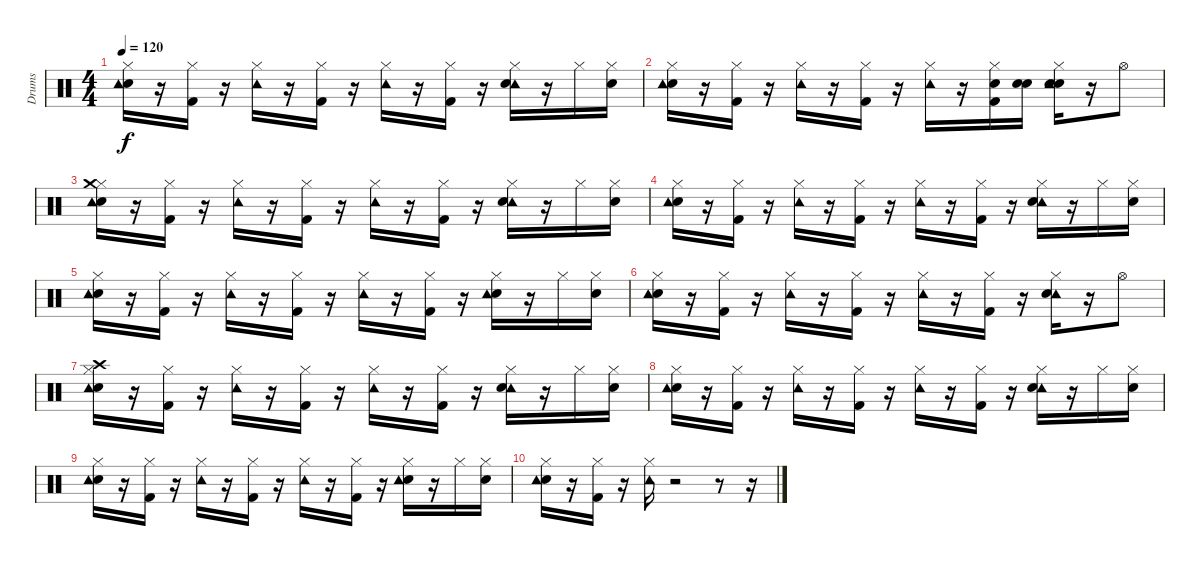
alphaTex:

\track ("Drums" "Drums") {instrument percussion}
\staff {score}
\articulation defaults
\ts (4 4)
\tempo 120
\clef neutral
\ks c
("Snare (hit)" "Hi-Hat (closed)" "Tambourine (hit)").16{dy f} r.16 ("Hi-Hat (closed)" "Kick (hit) 2").16 r.16 ("Hi-Hat (closed)" "Tambourine (hit)").16 r.16 ("Hi-Hat (closed)" "Kick (hit) 2").16 r.16 ("Tambourine (hit)" "Hi-Hat (closed)").16 r.16 ("Kick (hit) 2" "Hi-Hat (closed)").16 r.16 ("Hi-Hat (closed)" "Tambourine (hit)" "Snare (hit) 2").16 r.16 "Hi-Hat (closed)".16 ("Snare (hit)" "Hi-Hat (closed)").16 |
("Snare (hit)" "Hi-Hat (closed)" "Tambourine (hit)").16 r.16 ("Hi-Hat (closed)" "Kick (hit) 2").16 r.16 ("Tambourine (hit)" "Hi-Hat (closed)").16 r.16 ("Hi-Hat (closed)" "Kick (hit) 2").16 r.16 ("Tambourine (hit)" "Hi-Hat (closed)").16 r.16 ("Kick (hit) 2" "Hi-Hat (closed)" "Snare (hit) 2").16 ("Snare (hit)" "Snare (hit) 2").16 ("Snare (hit)" "Tambourine (hit)" "Hi-Hat (closed)" "Snare (hit) 2").16 r.16 "Hi-Hat (open)".8 |
("Snare (hit)" "Hi-Hat (closed)" "Tambourine (hit)" "Crash medium (hit)").16 r.16 ("Hi-Hat (closed)" "Kick (hit) 2").16 r.16 ("Tambourine (hit)" "Hi-Hat (closed)").16 r.16 ("Kick (hit) 2" "Hi-Hat (closed)").16 r.16 ("Hi-Hat (closed)" "Tambourine (hit)").16 r.16 ("Hi-Hat (closed)" "Kick (hit) 2").16 r.16 ("Hi-Hat (closed)" "Tambourine (hit)" "Snare (hit) 2").16 r.16 "Hi-Hat (closed)".16 ("Snare (hit)" "Hi-Hat (closed)").16 |
("Snare (hit)" "Tambourine (hit)" "Hi-Hat (closed)").16 r.16 ("Hi-Hat (closed)" "Kick (hit) 2").16 r.16 ("Tambourine (hit)" "Hi-Hat (closed)").16 r.16 ("Hi-Hat (closed)" "Kick (hit) 2").16 r.16 ("Hi-Hat (closed)" "Tambourine (hit)").16 r.16 ("Hi-Hat (closed)" "Kick (hit) 2").16 r.16 ("Hi-Hat (closed)" "Tambourine (hit)" "Snare (hit) 2").16 r.16 "Hi-Hat (closed)".16 ("Snare (hit)" "Hi-Hat (closed)").16 |
("Snare (hit)" "Hi-Hat (closed)" "Tambourine (hit)").16 r.16 ("Kick (hit) 2" "Hi-Hat (closed)").16 r.16 ("Tambourine (hit)" "Hi-Hat (closed)").16 r.16 ("Hi-Hat (closed)" "Kick (hit) 2").16 r.16 ("Tambourine (hit)" "Hi-Hat (closed)").16 r.16 ("Hi-Hat (closed)" "Kick (hit) 2").16 r.16 ("Hi-Hat (closed)" "Snare (hit) 2" "Tambourine (hit)").16 r.16 "Hi-Hat (closed)".16 ("Snare (hit)" "Hi-Hat (closed)").16 |
("Snare (hit)" "Hi-Hat (closed)" "Tambourine (hit)").16 r.16 ("Hi-Hat (closed)" "Kick (hit) 2").16 r.16 ("Hi-Hat (closed)" "Tambourine (hit)").16 r.16 ("Kick (hit) 2" "Hi-Hat (closed)").16 r.16 ("Hi-Hat (closed)" "Tambourine (hit)").16 r.16 ("Hi-Hat (closed)" "Kick (hit) 2").16 r.16 ("Tambourine (hit)" "Hi-Hat (closed)" "Snare (hit) 2").16 r.16 "Hi-Hat (open)".8 |
("Snare (hit)" "Tambourine (hit)" "Hi-Hat (closed)" "Crash high (hit)").16 r.16 ("Hi-Hat (closed)" "Kick (hit) 2").16 r.16 ("Tambourine (hit)" "Hi-Hat (closed)").16 r.16 ("Kick (hit) 2" "Hi-Hat (closed)").16 r.16 ("Hi-Hat (closed)" "Tambourine (hit)").16 r.16 ("Kick (hit) 2" "Hi-Hat (closed)").16 r.16 ("Hi-Hat (closed)" "Tambourine (hit)" "Snare (hit) 2").16 r.16 "Hi-Hat (closed)".16 ("Snare (hit)" "Hi-Hat (closed)").16 |
("Snare (hit)" "Tambourine (hit)" "Hi-Hat (closed)").16 r.16 ("Kick (hit) 2" "Hi-Hat (closed)").16 r.16 ("Tambourine (hit)" "Hi-Hat (closed)").16 r.16 ("Kick (hit) 2" "Hi-Hat (closed)").16 r.16 ("Tambourine (hit)" "Hi-Hat (closed)").16 r.16 ("Hi-Hat (closed)" "Kick (hit) 2").16 r.16 ("Tambourine (hit)" "Snare (hit) 2" "Hi-Hat (closed)").16 r.16 "Hi-Hat (closed)".16 ("Snare (hit)" "Hi-Hat (closed)").16 |
("Snare (hit)" "Hi-Hat (closed)" "Tambourine (hit)").16 r.16 ("Kick (hit) 2" "Hi-Hat (closed)").16 r.16 ("Tambourine (hit)" "Hi-Hat (closed)").16 r.16 ("Kick (hit) 2" "Hi-Hat (closed)").16 r.16 ("Tambourine (hit)" "Hi-Hat (closed)").16 r.16 ("Kick (hit) 2" "Hi-Hat (closed)").16 r.16 ("Hi-Hat (closed)" "Snare (hit) 2" "Tambourine (hit)").16 r.16 "Hi-Hat (closed)".16 ("Snare (hit)" "Hi-Hat (closed)").16 |
("Snare (hit)" "Tambourine (hit)" "Hi-Hat (closed)").16 r.16 ("Hi-Hat (closed)" "Kick (hit) 2").16 r.16 ("Tambourine (hit)" "Hi-Hat (closed)").16 r.2 r.8 r.16
